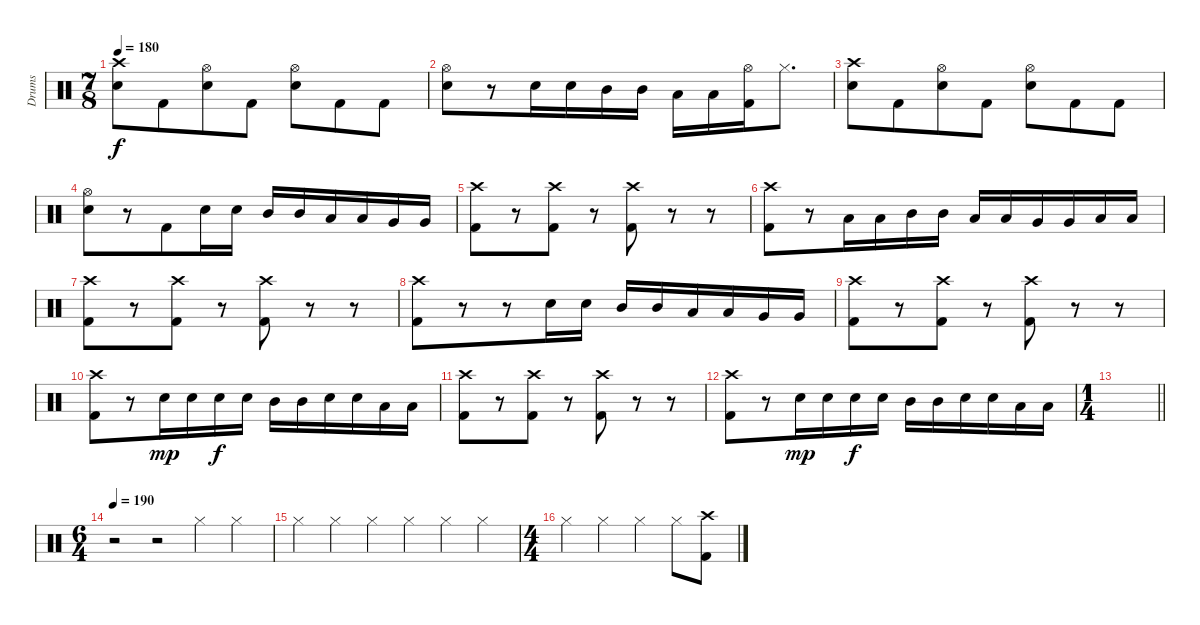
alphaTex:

\track ("Drums" "Drums") {instrument percussion}
\staff {score}
\articulation defaults
\ts (7 8)
\tempo 180
\clef neutral
\ks c
("Crash high (hit)" "Snare (hit) 2").8{dy f} "Kick (hit) 2".8 ("Hi-Hat (open)" "Snare (hit) 2").8 "Kick (hit) 2".8 ("Hi-Hat (open)" "Snare (hit) 2").8 "Kick (hit) 2".8 "Kick (hit) 2".8 |
("Hi-Hat (open)" "Snare (hit) 2").8 r.8 "Snare (hit) 2".16 "Snare (hit) 2".16 "Mid Tom (hit)".16 "Mid Tom (hit)".16 "Low Tom (hit)".16 "Low Tom (hit)".16 ("Hi-Hat (open)" "Kick (hit) 2").16 "Hi-Hat (closed)".8{d} |
("Crash high (hit)" "Snare (hit) 2").8 "Kick (hit) 2".8 ("Hi-Hat (open)" "Snare (hit) 2").8 "Kick (hit) 2".8 ("Hi-Hat (open)" "Snare (hit) 2").8 "Kick (hit) 2".8 "Kick (hit) 2".8 |
("Hi-Hat (open)" "Snare (hit) 2").8 r.8 "Kick (hit) 2".8 "Snare (hit) 2".16 "Snare (hit) 2".16 "Mid Tom (hit)".16 "Mid Tom (hit)".16 "Low Tom (hit)".16 "Low Tom (hit)".16 "Very Low Tom (hit)".16 "Very Low Tom (hit)".16 |
("Crash high (hit)" "Kick (hit) 2").8 r.8 ("Crash high (hit)" "Kick (hit) 2").8 r.8 ("Crash high (hit)" "Kick (hit) 2").8 r.8 r.8 |
("Crash high (hit)" "Kick (hit) 2").8 r.8 "Low Tom (hit)".16 "Low Tom (hit)".16 "Mid Tom (hit)".16 "Mid Tom (hit)".16 "Low Tom (hit)".16 "Low Tom (hit)".16 "Very Low Tom (hit)".16 "Very Low Tom (hit)".16 "Low Floor Tom (hit)".16 "Low Floor Tom (hit)".16 |
("Crash high (hit)" "Kick (hit) 2").8 r.8 ("Crash high (hit)" "Kick (hit) 2").8 r.8 ("Crash high (hit)" "Kick (hit) 2").8 r.8 r.8 |
("Crash high (hit)" "Kick (hit) 2").8 r.8 r.8 "Snare (hit) 2".16 "Snare (hit) 2".16 "Mid Tom (hit)".16 "Mid Tom (hit)".16 "Low Tom (hit)".16 "Low Tom (hit)".16 "Very Low Tom (hit)".16 "Very Low Tom (hit)".16 |
("Crash high (hit)" "Kick (hit) 2").8 r.8 ("Crash high (hit)" "Kick (hit) 2").8 r.8 ("Crash high (hit)" "Kick (hit) 2").8 r.8 r.8 |
("Crash high (hit)" "Kick (hit) 2").8 r.8 "Snare (hit) 2".16{dy mp} "Snare (hit) 2".16 "Snare (hit) 2".16{dy f} "Snare (hit) 2".16 "Mid Tom (hit)".16 "Mid Tom (hit)".16 "Snare (hit) 2".16 "Snare (hit) 2".16 "Low Tom (hit)".16 "Low Tom (hit)".16 |
("Crash high (hit)" "Kick (hit) 2").8 r.8 ("Crash high (hit)" "Kick (hit) 2").8 r.8 ("Crash high (hit)" "Kick (hit) 2").8 r.8 r.8 |
("Crash high (hit)" "Kick (hit) 2").8 r.8 "Snare (hit) 2".16{dy mp} "Snare (hit) 2".16 "Snare (hit) 2".16{dy f} "Snare (hit) 2".16 "Mid Tom (hit)".16 "Mid Tom (hit)".16 "Snare (hit) 2".16 "Snare (hit) 2".16 "Low Tom (hit)".16 "Low Tom (hit)".16 |
\ts (1 4)
\barLineRight lightlight
|
\ts (6 4)
\tempo 190
r.2 r.2 "Hi-Hat (closed)".4 "Hi-Hat (closed)".4 |
"Hi-Hat (closed)".4 "Hi-Hat (closed)".4 "Hi-Hat (closed)".4 "Hi-Hat (closed)".4 "Hi-Hat (closed)".4 "Hi-Hat (closed)".4 |
\ts (4 4)
"Hi-Hat (closed)".4 "Hi-Hat (closed)".4 "Hi-Hat (closed)".4 "Hi-Hat (closed)".8 ("Crash high (hit)" "Kick (hit) 2").8
